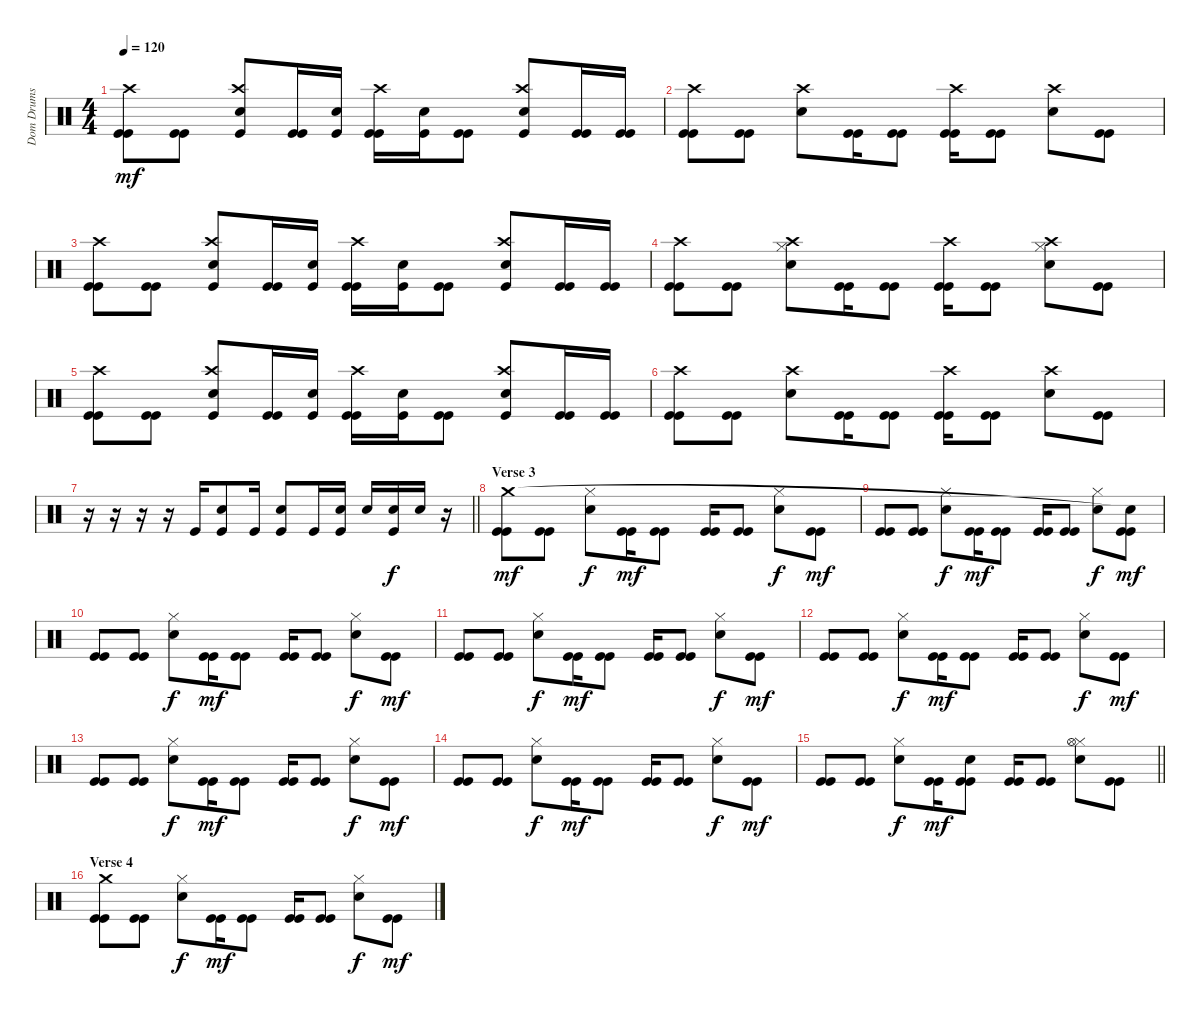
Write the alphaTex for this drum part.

\track ("Dom Drums" "Dom Drums") {instrument percussion}
\staff {score}
\articulation defaults
\ts (4 4)
\tempo 120
\clef neutral
\ks c
("Kick (hit)" "Kick (hit)" "Crash high (hit)").8{dy mf} ("Kick (hit)" "Kick (hit)").8 ("Kick (hit)" "Electric Snare (hit)" "Crash high (hit)").8 ("Kick (hit)" "Kick (hit)").16 ("Kick (hit)" "Electric Snare (hit)").16 ("Kick (hit)" "Kick (hit)" "Crash high (hit)").16 ("Kick (hit)" "Electric Snare (hit)").16 ("Kick (hit)" "Kick (hit)").8 ("Kick (hit)" "Electric Snare (hit)" "Crash high (hit)").8 ("Kick (hit)" "Kick (hit)").16 ("Kick (hit)" "Kick (hit)").16 |
("Kick (hit)" "Kick (hit)" "Crash high (hit)").8 ("Kick (hit)" "Kick (hit)").8 ("Electric Snare (hit)" "Crash high (hit)").8 ("Kick (hit)" "Kick (hit)").16 ("Kick (hit)" "Kick (hit)").8 ("Kick (hit)" "Kick (hit)" "Crash high (hit)").16 ("Kick (hit)" "Kick (hit)").8 ("Electric Snare (hit)" "Crash high (hit)").8 ("Kick (hit)" "Kick (hit)").8 |
("Crash high (hit)" "Kick (hit)" "Kick (hit)").8 ("Kick (hit)" "Kick (hit)").8 ("Crash high (hit)" "Kick (hit)" "Electric Snare (hit)").8 ("Kick (hit)" "Kick (hit)").16 ("Kick (hit)" "Electric Snare (hit)").16 ("Crash high (hit)" "Kick (hit)" "Kick (hit)").16 ("Kick (hit)" "Electric Snare (hit)").16 ("Kick (hit)" "Kick (hit)").8 ("Crash high (hit)" "Kick (hit)" "Electric Snare (hit)").8 ("Kick (hit)" "Kick (hit)").16 ("Kick (hit)" "Kick (hit)").16 |
("Kick (hit)" "Kick (hit)" "Crash high (hit)").8 ("Kick (hit)" "Kick (hit)").8 ("Electric Snare (hit)" "Hi-Hat (closed)" "Crash high (hit)").8 ("Kick (hit)" "Kick (hit)").16 ("Kick (hit)" "Kick (hit)").8 ("Kick (hit)" "Kick (hit)" "Crash high (hit)").16 ("Kick (hit)" "Kick (hit)").8 ("Electric Snare (hit)" "Hi-Hat (closed)" "Crash high (hit)").8 ("Kick (hit)" "Kick (hit)").8 |
("Kick (hit)" "Kick (hit)" "Crash high (hit)").8 ("Kick (hit)" "Kick (hit)").8 ("Kick (hit)" "Electric Snare (hit)" "Crash high (hit)").8 ("Kick (hit)" "Kick (hit)").16 ("Kick (hit)" "Electric Snare (hit)").16 ("Kick (hit)" "Kick (hit)" "Crash high (hit)").16 ("Kick (hit)" "Electric Snare (hit)").16 ("Kick (hit)" "Kick (hit)").8 ("Kick (hit)" "Electric Snare (hit)" "Crash high (hit)").8 ("Kick (hit)" "Kick (hit)").16 ("Kick (hit)" "Kick (hit)").16 |
("Kick (hit)" "Kick (hit)" "Crash high (hit)").8 ("Kick (hit)" "Kick (hit)").8 ("Electric Snare (hit)" "Crash high (hit)").8 ("Kick (hit)" "Kick (hit)").16 ("Kick (hit)" "Kick (hit)").8 ("Kick (hit)" "Kick (hit)" "Crash high (hit)").16 ("Kick (hit)" "Kick (hit)").8 ("Electric Snare (hit)" "Crash high (hit)").8 ("Kick (hit)" "Kick (hit)").8 |
\barLineRight lightlight
r.16 r.16 r.16 r.16 "Kick (hit)".16 ("Electric Snare (hit)" "Kick (hit)").8 "Kick (hit)".16 ("Electric Snare (hit)" "Kick (hit)").8 "Kick (hit)".16 ("Electric Snare (hit)" "Kick (hit)").16 "Electric Snare (hit)".16 ("Electric Snare (hit)" "Kick (hit)").16{dy f} "Electric Snare (hit)".16 r.16 |
\section ("" "Verse 3")
("Kick (hit)" "Kick (hit)" "Crash medium (hit)").8{dy mf} ("Kick (hit)" "Kick (hit)").8 ("Electric Snare (hit)" "Hi-Hat (closed)").8{dy f} ("Kick (hit)" "Kick (hit)").16{dy mf} ("Kick (hit)" "Kick (hit)").8 ("Kick (hit)" "Kick (hit)").16 ("Kick (hit)" "Kick (hit)").8 ("Electric Snare (hit)" "Hi-Hat (closed)").8{dy f} ("Kick (hit)" "Kick (hit)").8{dy mf} |
("Kick (hit)" "Kick (hit)").8 ("Kick (hit)" "Kick (hit)").8 ("Electric Snare (hit)" "Hi-Hat (closed)").8{dy f} ("Kick (hit)" "Kick (hit)").16{dy mf} ("Kick (hit)" "Kick (hit)").8 ("Kick (hit)" "Kick (hit)").16 ("Kick (hit)" "Kick (hit)").8 ("Electric Snare (hit)" "Hi-Hat (closed)").8{dy f} ("Kick (hit)" "Kick (hit)" "Snare (hit)"{t}).8{dy mf} |
("Kick (hit)" "Kick (hit)").8 ("Kick (hit)" "Kick (hit)").8 ("Electric Snare (hit)" "Hi-Hat (closed)").8{dy f} ("Kick (hit)" "Kick (hit)").16{dy mf} ("Kick (hit)" "Kick (hit)").8 ("Kick (hit)" "Kick (hit)").16 ("Kick (hit)" "Kick (hit)").8 ("Electric Snare (hit)" "Hi-Hat (closed)").8{dy f} ("Kick (hit)" "Kick (hit)").8{dy mf} |
("Kick (hit)" "Kick (hit)").8 ("Kick (hit)" "Kick (hit)").8 ("Electric Snare (hit)" "Hi-Hat (closed)").8{dy f} ("Kick (hit)" "Kick (hit)").16{dy mf} ("Kick (hit)" "Kick (hit)").8 ("Kick (hit)" "Kick (hit)").16 ("Kick (hit)" "Kick (hit)").8 ("Electric Snare (hit)" "Hi-Hat (closed)").8{dy f} ("Kick (hit)" "Kick (hit)").8{dy mf} |
("Kick (hit)" "Kick (hit)").8 ("Kick (hit)" "Kick (hit)").8 ("Electric Snare (hit)" "Hi-Hat (closed)").8{dy f} ("Kick (hit)" "Kick (hit)").16{dy mf} ("Kick (hit)" "Kick (hit)").8 ("Kick (hit)" "Kick (hit)").16 ("Kick (hit)" "Kick (hit)").8 ("Electric Snare (hit)" "Hi-Hat (closed)").8{dy f} ("Kick (hit)" "Kick (hit)").8{dy mf} |
("Kick (hit)" "Kick (hit)").8 ("Kick (hit)" "Kick (hit)").8 ("Electric Snare (hit)" "Hi-Hat (closed)").8{dy f} ("Kick (hit)" "Kick (hit)").16{dy mf} ("Kick (hit)" "Kick (hit)").8 ("Kick (hit)" "Kick (hit)").16 ("Kick (hit)" "Kick (hit)").8 ("Electric Snare (hit)" "Hi-Hat (closed)").8{dy f} ("Kick (hit)" "Kick (hit)").8{dy mf} |
("Kick (hit)" "Kick (hit)").8 ("Kick (hit)" "Kick (hit)").8 ("Electric Snare (hit)" "Hi-Hat (closed)").8{dy f} ("Kick (hit)" "Kick (hit)").16{dy mf} ("Kick (hit)" "Kick (hit)").8 ("Kick (hit)" "Kick (hit)").16 ("Kick (hit)" "Kick (hit)").8 ("Electric Snare (hit)" "Hi-Hat (closed)").8{dy f} ("Kick (hit)" "Kick (hit)").8{dy mf} |
\barLineRight lightlight
("Kick (hit)" "Kick (hit)").8 ("Kick (hit)" "Kick (hit)").8 ("Electric Snare (hit)" "Hi-Hat (closed)").8{dy f} ("Kick (hit)" "Kick (hit)").16{dy mf} ("Kick (hit)" "Kick (hit)" "Electric Snare (hit)").8 ("Kick (hit)" "Kick (hit)").16 ("Kick (hit)" "Kick (hit)").8 ("Electric Snare (hit)" "Hi-Hat (closed)" "Hi-Hat (open)").8 ("Kick (hit)" "Kick (hit)").8 |
\section ("" "Verse 4")
("Kick (hit)" "Kick (hit)" "Crash medium (hit)").8 ("Kick (hit)" "Kick (hit)").8 ("Electric Snare (hit)" "Hi-Hat (closed)").8{dy f} ("Kick (hit)" "Kick (hit)").16{dy mf} ("Kick (hit)" "Kick (hit)").8 ("Kick (hit)" "Kick (hit)").16 ("Kick (hit)" "Kick (hit)").8 ("Electric Snare (hit)" "Hi-Hat (closed)").8{dy f} ("Kick (hit)" "Kick (hit)").8{dy mf}
